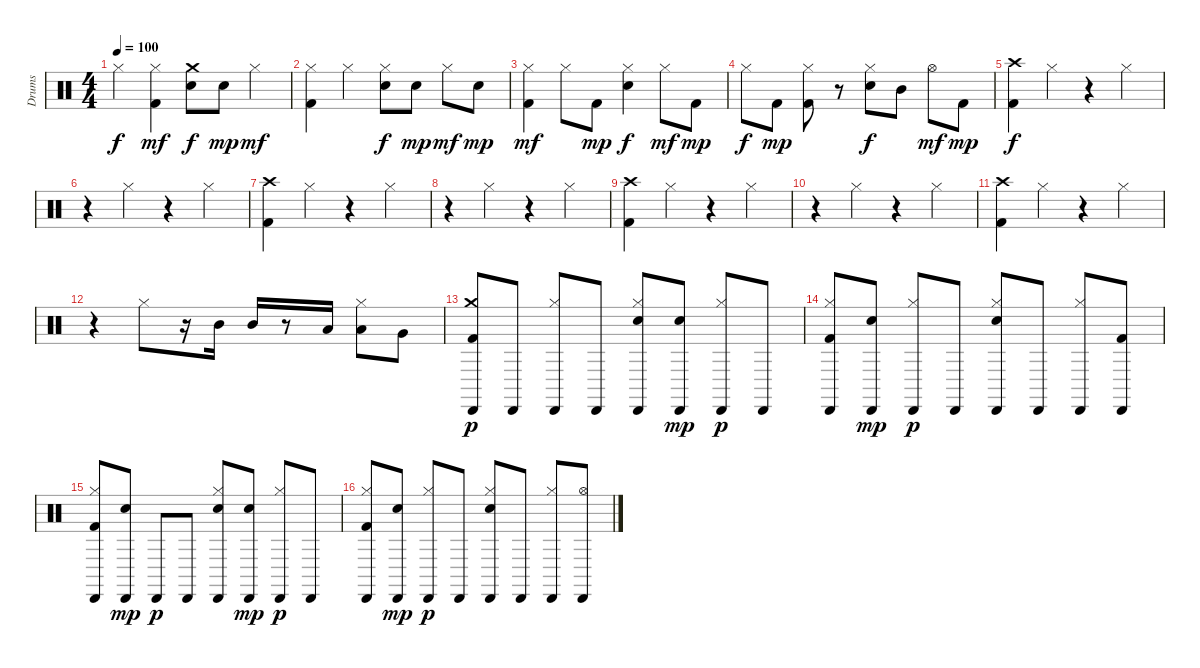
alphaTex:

\track ("Drums" "Drums") {instrument percussion}
\staff {score}
\articulation defaults
\ts (4 4)
\tempo 100
\clef neutral
\ks c "Hi-Hat (closed)".4{dy f}
("Hi-Hat (closed)" "Kick (hit) 2").4{dy mf} ("Crash medium (hit)" "Electric Snare (hit)").8{dy f} "Electric Snare (hit)".8{dy mp} "Hi-Hat (closed)".4{dy mf} |
("Hi-Hat (closed)" "Kick (hit) 2").4 "Hi-Hat (closed)".4 ("Hi-Hat (closed)" "Electric Snare (hit)").8{dy f} "Electric Snare (hit)".8{dy mp} "Hi-Hat (closed)".8{dy mf} "Electric Snare (hit)".8{dy mp} |
("Hi-Hat (closed)" "Kick (hit) 2").4{dy mf} "Hi-Hat (closed)".8 "Kick (hit) 2".8{dy mp} ("Hi-Hat (closed)" "Electric Snare (hit)").4{dy f} "Hi-Hat (closed)".8{dy mf} "Kick (hit) 2".8{dy mp} |
"Hi-Hat (closed)".8{dy f} "Kick (hit) 2".8{dy mp} ("Hi-Hat (closed)" "Kick (hit) 2").8 r.8 ("Hi-Hat (closed)" "Electric Snare (hit)").8{dy f} "Mid Tom (hit)".8 "Hi-Hat (open)".8{dy mf} "Kick (hit) 2".8{dy mp} |
("Crash high (hit)" "Kick (hit) 2").4{dy f} "Hi-Hat (closed)".4 r.4 "Hi-Hat (closed)".4 |
r.4 "Hi-Hat (closed)".4 r.4 "Hi-Hat (closed)".4 |
("Crash high (hit)" "Kick (hit) 2").4 "Hi-Hat (closed)".4 r.4 "Hi-Hat (closed)".4 |
r.4 "Hi-Hat (closed)".4 r.4 "Hi-Hat (closed)".4 |
("Crash high (hit)" "Kick (hit) 2").4 "Hi-Hat (closed)".4 r.4 "Hi-Hat (closed)".4 |
r.4 "Hi-Hat (closed)".4 r.4 "Hi-Hat (closed)".4 |
("Crash high (hit)" "Kick (hit) 2").4 "Hi-Hat (closed)".4 r.4 "Hi-Hat (closed)".4 |
r.4 "Hi-Hat (closed)".8 r.16 "Mid Tom (hit)".16 "Mid Tom (hit)".16 r.8 "Low Tom (hit)".16 ("Hi-Hat (closed)" "Low Tom (hit)").8 "Very Low Tom (hit)".8 |
("Crash medium (hit)" "Cabasa (hit)" "Kick (hit) 2").8{dy p} "Cabasa (hit)".8 ("Hi-Hat (closed)" "Cabasa (hit)").8 "Cabasa (hit)".8 ("Hi-Hat (closed)" "Cabasa (hit)" "Snare (hit) 2").8 ("Cabasa (hit)" "Snare (hit) 2").8{dy mp} ("Hi-Hat (closed)" "Cabasa (hit)").8{dy p} "Cabasa (hit)".8 |
("Hi-Hat (closed)" "Cabasa (hit)" "Kick (hit) 2").8 ("Cabasa (hit)" "Snare (hit) 2").8{dy mp} ("Hi-Hat (closed)" "Cabasa (hit)").8{dy p} "Cabasa (hit)".8 ("Hi-Hat (closed)" "Cabasa (hit)" "Snare (hit) 2").8 "Cabasa (hit)".8 ("Hi-Hat (closed)" "Cabasa (hit)").8 ("Cabasa (hit)" "Kick (hit) 2").8 |
("Hi-Hat (closed)" "Cabasa (hit)" "Kick (hit) 2").8 ("Cabasa (hit)" "Snare (hit) 2").8{dy mp} "Cabasa (hit)".8{dy p} "Cabasa (hit)".8 ("Hi-Hat (closed)" "Cabasa (hit)" "Snare (hit) 2").8 ("Cabasa (hit)" "Snare (hit) 2").8{dy mp} ("Hi-Hat (closed)" "Cabasa (hit)").8{dy p} "Cabasa (hit)".8 |
("Hi-Hat (closed)" "Cabasa (hit)" "Kick (hit) 2").8 ("Cabasa (hit)" "Snare (hit) 2").8{dy mp} ("Hi-Hat (closed)" "Cabasa (hit)").8{dy p} "Cabasa (hit)".8 ("Hi-Hat (closed)" "Cabasa (hit)" "Snare (hit) 2").8 "Cabasa (hit)".8 ("Hi-Hat (closed)" "Cabasa (hit)").8 ("Hi-Hat (open)" "Cabasa (hit)").8
